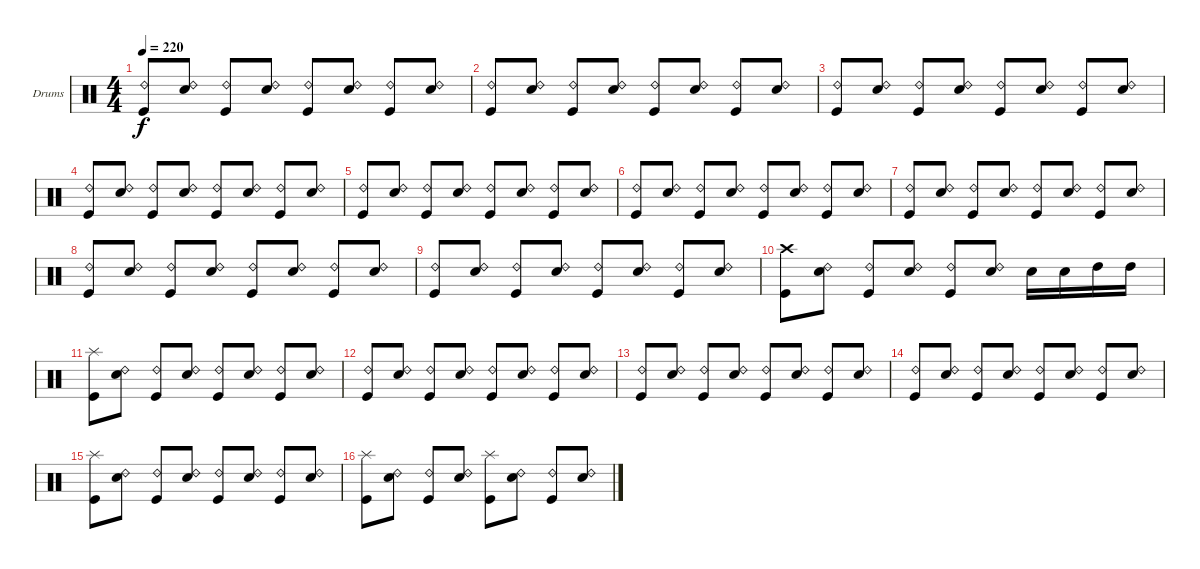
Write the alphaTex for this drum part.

\bracketExtendMode groupsimilarinstruments
\firstSystemTrackNameOrientation horizontal
\otherSystemsTrackNameOrientation horizontal
\track ("Dave Lombardo" "Drums") {instrument percussion}
\staff {score}
\articulation defaults
\ts (4 4)
\tempo 220
\clef neutral
\ks c
("Kick (hit)" "Ride (bell) 2").8{dy f} ("Snare (hit) 2" "Ride (bell) 2").8 ("Kick (hit)" "Ride (bell) 2").8 ("Snare (hit) 2" "Ride (bell) 2").8 ("Kick (hit)" "Ride (bell) 2").8 ("Snare (hit) 2" "Ride (bell) 2").8 ("Kick (hit)" "Ride (bell) 2").8 ("Snare (hit) 2" "Ride (bell) 2").8 |
("Kick (hit)" "Ride (bell) 2").8 ("Snare (hit) 2" "Ride (bell) 2").8 ("Kick (hit)" "Ride (bell) 2").8 ("Snare (hit) 2" "Ride (bell) 2").8 ("Kick (hit)" "Ride (bell) 2").8 ("Snare (hit) 2" "Ride (bell) 2").8 ("Kick (hit)" "Ride (bell) 2").8 ("Snare (hit) 2" "Ride (bell) 2").8 |
("Kick (hit)" "Ride (bell) 2").8 ("Snare (hit) 2" "Ride (bell) 2").8 ("Kick (hit)" "Ride (bell) 2").8 ("Snare (hit) 2" "Ride (bell) 2").8 ("Kick (hit)" "Ride (bell) 2").8 ("Snare (hit) 2" "Ride (bell) 2").8 ("Kick (hit)" "Ride (bell) 2").8 ("Snare (hit) 2" "Ride (bell) 2").8 |
("Kick (hit)" "Ride (bell) 2").8 ("Snare (hit) 2" "Ride (bell) 2").8 ("Kick (hit)" "Ride (bell) 2").8 ("Snare (hit) 2" "Ride (bell) 2").8 ("Kick (hit)" "Ride (bell) 2").8 ("Snare (hit) 2" "Ride (bell) 2").8 ("Kick (hit)" "Ride (bell) 2").8 ("Snare (hit) 2" "Ride (bell) 2").8 |
("Kick (hit)" "Ride (bell) 2").8 ("Snare (hit) 2" "Ride (bell) 2").8 ("Kick (hit)" "Ride (bell) 2").8 ("Snare (hit) 2" "Ride (bell) 2").8 ("Kick (hit)" "Ride (bell) 2").8 ("Snare (hit) 2" "Ride (bell) 2").8 ("Kick (hit)" "Ride (bell) 2").8 ("Snare (hit) 2" "Ride (bell) 2").8 |
("Kick (hit)" "Ride (bell) 2").8 ("Snare (hit) 2" "Ride (bell) 2").8 ("Kick (hit)" "Ride (bell) 2").8 ("Snare (hit) 2" "Ride (bell) 2").8 ("Kick (hit)" "Ride (bell) 2").8 ("Snare (hit) 2" "Ride (bell) 2").8 ("Kick (hit)" "Ride (bell) 2").8 ("Snare (hit) 2" "Ride (bell) 2").8 |
("Kick (hit)" "Ride (bell) 2").8 ("Snare (hit) 2" "Ride (bell) 2").8 ("Kick (hit)" "Ride (bell) 2").8 ("Snare (hit) 2" "Ride (bell) 2").8 ("Kick (hit)" "Ride (bell) 2").8 ("Snare (hit) 2" "Ride (bell) 2").8 ("Kick (hit)" "Ride (bell) 2").8 ("Snare (hit) 2" "Ride (bell) 2").8 |
("Kick (hit)" "Ride (bell) 2").8 ("Snare (hit) 2" "Ride (bell) 2").8 ("Kick (hit)" "Ride (bell) 2").8 ("Snare (hit) 2" "Ride (bell) 2").8 ("Kick (hit)" "Ride (bell) 2").8 ("Snare (hit) 2" "Ride (bell) 2").8 ("Kick (hit)" "Ride (bell) 2").8 ("Snare (hit) 2" "Ride (bell) 2").8 |
("Kick (hit)" "Ride (bell) 2").8 ("Snare (hit) 2" "Ride (bell) 2").8 ("Kick (hit)" "Ride (bell) 2").8 ("Snare (hit) 2" "Ride (bell) 2").8 ("Kick (hit)" "Ride (bell) 2").8 ("Snare (hit) 2" "Ride (bell) 2").8 ("Kick (hit)" "Ride (bell) 2").8 ("Snare (hit) 2" "Ride (bell) 2").8 |
("Kick (hit)" "Crash high (hit)").8 ("Snare (hit) 2" "Ride (bell) 2").8 ("Kick (hit)" "Ride (bell) 2").8 ("Snare (hit) 2" "Ride (bell) 2").8 ("Kick (hit)" "Ride (bell) 2").8 ("Snare (hit) 2" "Ride (bell) 2").8 "Snare (hit) 2".16 "Snare (hit) 2".16 "High Tom (hit)".16 "High Tom (hit)".16 |
("Kick (hit)" "Splash (hit)").8 ("Snare (hit) 2" "Ride (bell) 2").8 ("Kick (hit)" "Ride (bell) 2").8 ("Snare (hit) 2" "Ride (bell) 2").8 ("Kick (hit)" "Ride (bell) 2").8 ("Snare (hit) 2" "Ride (bell) 2").8 ("Kick (hit)" "Ride (bell) 2").8 ("Snare (hit) 2" "Ride (bell) 2").8 |
("Kick (hit)" "Ride (bell) 2").8 ("Snare (hit) 2" "Ride (bell) 2").8 ("Kick (hit)" "Ride (bell) 2").8 ("Snare (hit) 2" "Ride (bell) 2").8 ("Kick (hit)" "Ride (bell) 2").8 ("Snare (hit) 2" "Ride (bell) 2").8 ("Kick (hit)" "Ride (bell) 2").8 ("Snare (hit) 2" "Ride (bell) 2").8 |
("Kick (hit)" "Ride (bell) 2").8 ("Snare (hit) 2" "Ride (bell) 2").8 ("Kick (hit)" "Ride (bell) 2").8 ("Snare (hit) 2" "Ride (bell) 2").8 ("Kick (hit)" "Ride (bell) 2").8 ("Snare (hit) 2" "Ride (bell) 2").8 ("Kick (hit)" "Ride (bell) 2").8 ("Snare (hit) 2" "Ride (bell) 2").8 |
("Kick (hit)" "Ride (bell) 2").8 ("Snare (hit) 2" "Ride (bell) 2").8 ("Kick (hit)" "Ride (bell) 2").8 ("Snare (hit) 2" "Ride (bell) 2").8 ("Kick (hit)" "Ride (bell) 2").8 ("Snare (hit) 2" "Ride (bell) 2").8 ("Kick (hit)" "Ride (bell) 2").8 ("Snare (hit) 2" "Ride (bell) 2").8 |
("Kick (hit)" "Splash (hit)").8 ("Snare (hit) 2" "Ride (bell) 2").8 ("Kick (hit)" "Ride (bell) 2").8 ("Snare (hit) 2" "Ride (bell) 2").8 ("Kick (hit)" "Ride (bell) 2").8 ("Snare (hit) 2" "Ride (bell) 2").8 ("Kick (hit)" "Ride (bell) 2").8 ("Snare (hit) 2" "Ride (bell) 2").8 |
("Kick (hit)" "Splash (hit)").8 ("Snare (hit) 2" "Ride (bell) 2").8 ("Kick (hit)" "Ride (bell) 2").8 ("Snare (hit) 2" "Ride (bell) 2").8 ("Kick (hit)" "Splash (hit)").8 ("Snare (hit) 2" "Ride (bell) 2").8 ("Kick (hit)" "Ride (bell) 2").8 ("Snare (hit) 2" "Ride (bell) 2").8
